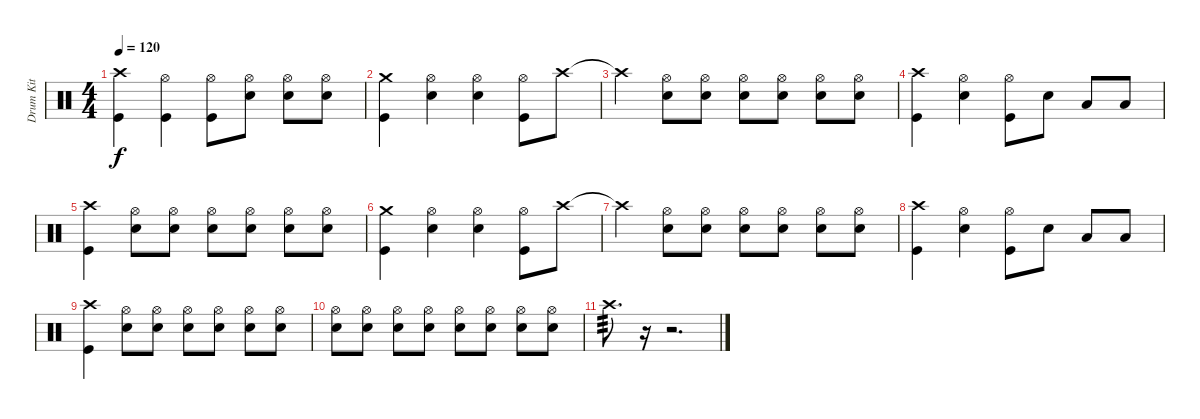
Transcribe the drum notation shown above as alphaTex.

\track ("Drum Kit" "Drum Kit") {instrument percussion}
\staff {score}
\articulation defaults
\ts (4 4)
\tempo 120
\clef neutral
\ks c
("Crash high (hit)" "Kick (hit)").4{dy f} ("Hi-Hat (open)" "Kick (hit)").4 ("Hi-Hat (open)" "Kick (hit)").8 ("Hi-Hat (open)" "Snare (hit) 2").8 ("Hi-Hat (open)" "Snare (hit) 2").8 ("Hi-Hat (open)" "Snare (hit) 2").8 |
("Crash medium (hit)" "Kick (hit)").4 ("Hi-Hat (open)" "Snare (hit) 2").4 ("Hi-Hat (open)" "Snare (hit) 2").4 ("Hi-Hat (open)" "Kick (hit)").8 "Crash high (hit)".8 |
"Crash high (hit)"{t}.4 ("Hi-Hat (open)" "Snare (hit) 2").8 ("Hi-Hat (open)" "Snare (hit) 2").8 ("Hi-Hat (open)" "Snare (hit) 2").8 ("Hi-Hat (open)" "Snare (hit) 2").8 ("Hi-Hat (open)" "Snare (hit) 2").8 ("Hi-Hat (open)" "Snare (hit) 2").8 |
("Crash high (hit)" "Kick (hit)").4 ("Hi-Hat (open)" "Snare (hit) 2").4 ("Hi-Hat (open)" "Kick (hit)").8 "Snare (hit) 2".8 "Low Tom (hit)".8 "Low Floor Tom (hit)".8 |
("Crash high (hit)" "Kick (hit)").4 ("Hi-Hat (open)" "Snare (hit) 2").8 ("Hi-Hat (open)" "Snare (hit) 2").8 ("Hi-Hat (open)" "Snare (hit) 2").8 ("Hi-Hat (open)" "Snare (hit) 2").8 ("Hi-Hat (open)" "Snare (hit) 2").8 ("Hi-Hat (open)" "Snare (hit) 2").8 |
("Crash medium (hit)" "Kick (hit)").4 ("Hi-Hat (open)" "Snare (hit) 2").4 ("Hi-Hat (open)" "Snare (hit) 2").4 ("Hi-Hat (open)" "Kick (hit)").8 "Crash high (hit)".8 |
"Crash high (hit)"{t}.4 ("Hi-Hat (open)" "Snare (hit) 2").8 ("Hi-Hat (open)" "Snare (hit) 2").8 ("Hi-Hat (open)" "Snare (hit) 2").8 ("Hi-Hat (open)" "Snare (hit) 2").8 ("Hi-Hat (open)" "Snare (hit) 2").8 ("Hi-Hat (open)" "Snare (hit) 2").8 |
("Crash high (hit)" "Kick (hit)").4 ("Hi-Hat (open)" "Snare (hit) 2").4 ("Hi-Hat (open)" "Kick (hit)").8 "Snare (hit) 2".8 "Low Tom (hit)".8 "Low Floor Tom (hit)".8 |
("Crash high (hit)" "Kick (hit)").4 ("Hi-Hat (open)" "Snare (hit) 2").8 ("Hi-Hat (open)" "Snare (hit) 2").8 ("Hi-Hat (open)" "Snare (hit) 2").8 ("Hi-Hat (open)" "Snare (hit) 2").8 ("Hi-Hat (open)" "Snare (hit) 2").8 ("Hi-Hat (open)" "Snare (hit) 2").8 |
("Hi-Hat (open)" "Snare (hit) 2").8 ("Hi-Hat (open)" "Snare (hit) 2").8 ("Hi-Hat (open)" "Snare (hit) 2").8 ("Hi-Hat (open)" "Snare (hit) 2").8 ("Hi-Hat (open)" "Snare (hit) 2").8 ("Hi-Hat (open)" "Snare (hit) 2").8 ("Hi-Hat (open)" "Snare (hit) 2").8 ("Hi-Hat (open)" "Snare (hit) 2").8 |
"Crash high (hit)".8{d tp 3} r.16 r.2{d}
